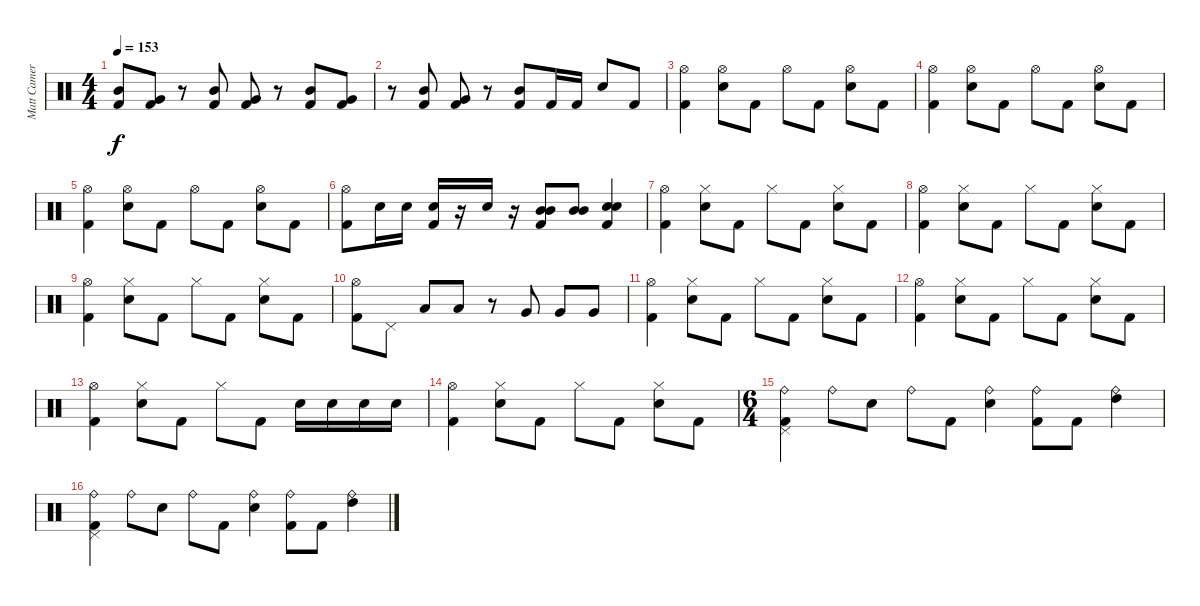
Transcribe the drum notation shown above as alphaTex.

\track ("Matt Cameron" "Matt Camer") {instrument percussion}
\staff {score}
\articulation defaults
\ts (4 4)
\tempo 153
\clef neutral
\ks c
("Mid Tom (hit)" "Kick (hit) 2").8{dy f} ("Very Low Tom (hit)" "Kick (hit) 2").8 r.8 ("Mid Tom (hit)" "Kick (hit) 2").8 ("Very Low Tom (hit)" "Kick (hit) 2").8 r.8 ("Mid Tom (hit)" "Kick (hit) 2").8 ("Very Low Tom (hit)" "Kick (hit) 2").8 |
r.8 ("Mid Tom (hit)" "Kick (hit) 2").8 ("Very Low Tom (hit)" "Kick (hit) 2").8 r.8 ("Mid Tom (hit)" "Kick (hit) 2").8 "Kick (hit) 2".16 "Kick (hit) 2".16 "Electric Snare (hit)".8 "Kick (hit) 2".8 |
("Hi-Hat (open)" "Kick (hit) 2").4 ("Hi-Hat (open)" "Electric Snare (hit)").8 "Kick (hit) 2".8 "Hi-Hat (open)".8 "Kick (hit) 2".8 ("Hi-Hat (open)" "Electric Snare (hit)").8 "Kick (hit) 2".8 |
("Hi-Hat (open)" "Kick (hit) 2").4 ("Hi-Hat (open)" "Electric Snare (hit)").8 "Kick (hit) 2".8 "Hi-Hat (open)".8 "Kick (hit) 2".8 ("Hi-Hat (open)" "Electric Snare (hit)").8 "Kick (hit) 2".8 |
("Hi-Hat (open)" "Kick (hit) 2").4 ("Hi-Hat (open)" "Electric Snare (hit)").8 "Kick (hit) 2".8 "Hi-Hat (open)".8 "Kick (hit) 2".8 ("Hi-Hat (open)" "Electric Snare (hit)").8 "Kick (hit) 2".8 |
("Hi-Hat (open)" "Kick (hit) 2").8 "Electric Snare (hit)".16 "Electric Snare (hit)".16 ("Electric Snare (hit)" "Kick (hit) 2").16 r.16 "Electric Snare (hit)".16 r.16 ("Mid Tom (hit)" "Mid Tom (hit)" "Kick (hit) 2").8 ("Mid Tom (hit)" "Mid Tom (hit)").8 ("Electric Snare (hit)" "Electric Snare (hit)" "Kick (hit) 2").4 |
("Hi-Hat (open)" "Kick (hit) 2").4 ("Hi-Hat (closed)" "Electric Snare (hit)").8 "Kick (hit) 2".8 "Hi-Hat (closed)".8 "Kick (hit) 2".8 ("Hi-Hat (closed)" "Electric Snare (hit)").8 "Kick (hit) 2".8 |
("Hi-Hat (open)" "Kick (hit) 2").4 ("Hi-Hat (closed)" "Electric Snare (hit)").8 "Kick (hit) 2".8 "Hi-Hat (closed)".8 "Kick (hit) 2".8 ("Hi-Hat (closed)" "Electric Snare (hit)").8 "Kick (hit) 2".8 |
("Hi-Hat (open)" "Kick (hit) 2").4 ("Hi-Hat (closed)" "Electric Snare (hit)").8 "Kick (hit) 2".8 "Hi-Hat (closed)".8 "Kick (hit) 2".8 ("Hi-Hat (closed)" "Electric Snare (hit)").8 "Kick (hit) 2".8 |
("Hi-Hat (open)" "Kick (hit) 2").8 "Pedal Hi-Hat (hit)".8 "Low Floor Tom (hit)".8 "Low Floor Tom (hit)".8 r.8 "Very Low Tom (hit)".8 "Very Low Tom (hit)".8 "Very Low Tom (hit)".8 |
("Hi-Hat (open)" "Kick (hit) 2").4 ("Hi-Hat (closed)" "Electric Snare (hit)").8 "Kick (hit) 2".8 "Hi-Hat (closed)".8 "Kick (hit) 2".8 ("Hi-Hat (closed)" "Electric Snare (hit)").8 "Kick (hit) 2".8 |
("Hi-Hat (open)" "Kick (hit) 2").4 ("Hi-Hat (closed)" "Electric Snare (hit)").8 "Kick (hit) 2".8 "Hi-Hat (closed)".8 "Kick (hit) 2".8 ("Hi-Hat (closed)" "Electric Snare (hit)").8 "Kick (hit) 2".8 |
("Hi-Hat (open)" "Kick (hit) 2").4 ("Hi-Hat (closed)" "Electric Snare (hit)").8 "Kick (hit) 2".8 "Hi-Hat (closed)".8 "Kick (hit) 2".8 "Electric Snare (hit)".16 "Electric Snare (hit)".16 "Electric Snare (hit)".16 "Electric Snare (hit)".16 |
("Hi-Hat (open)" "Kick (hit) 2").4 ("Hi-Hat (closed)" "Electric Snare (hit)").8 "Kick (hit) 2".8 "Hi-Hat (closed)".8 "Kick (hit) 2".8 ("Hi-Hat (closed)" "Electric Snare (hit)").8 "Kick (hit) 2".8 |
\ts (6 4)
("Pedal Hi-Hat (hit)" "Ride (bell)" "Kick (hit) 2").4 "Ride (bell)".8 "Electric Snare (hit)".8 "Ride (bell)".8 "Kick (hit) 2".8 ("Ride (bell)" "Electric Snare (hit)").4 ("Ride (bell)" "Kick (hit) 2").8 "Kick (hit) 2".8 ("Ride (bell)" "High Tom (hit)").4 |
("Pedal Hi-Hat (hit)" "Ride (bell)" "Kick (hit) 2").4 "Ride (bell)".8 "Electric Snare (hit)".8 "Ride (bell)".8 "Kick (hit) 2".8 ("Ride (bell)" "Electric Snare (hit)").4 ("Ride (bell)" "Kick (hit) 2").8 "Kick (hit) 2".8 ("Ride (bell)" "High Tom (hit)").4
